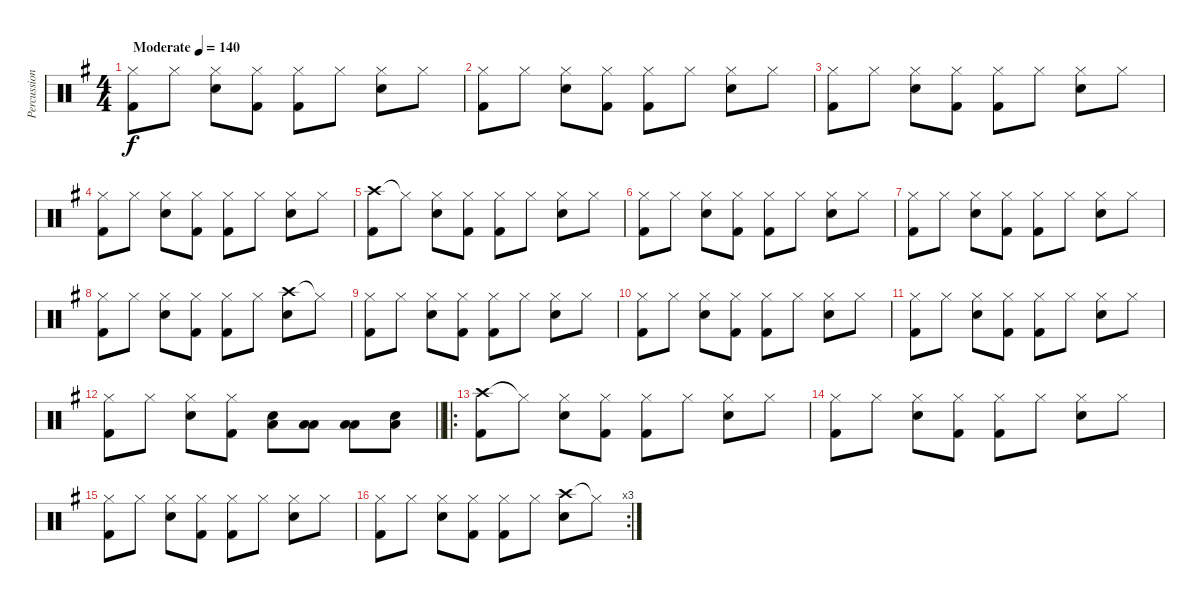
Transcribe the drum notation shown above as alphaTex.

\track ("Percussion" "Percussion") {instrument percussion}
\staff {score}
\articulation defaults
\ts (4 4)
\tempo (140 "Moderate")
\clef neutral
\ks g
("Hi-Hat (closed)" "Kick (hit) 2").8{dy f} "Hi-Hat (closed)".8 ("Hi-Hat (closed)" "Snare (hit) 2").8 ("Hi-Hat (closed)" "Kick (hit) 2").8 ("Hi-Hat (closed)" "Kick (hit) 2").8 "Hi-Hat (closed)".8 ("Hi-Hat (closed)" "Snare (hit) 2").8 "Hi-Hat (closed)".8 |
("Hi-Hat (closed)" "Kick (hit) 2").8 "Hi-Hat (closed)".8 ("Hi-Hat (closed)" "Snare (hit) 2").8 ("Hi-Hat (closed)" "Kick (hit) 2").8 ("Hi-Hat (closed)" "Kick (hit) 2").8 "Hi-Hat (closed)".8 ("Hi-Hat (closed)" "Snare (hit) 2").8 "Hi-Hat (closed)".8 |
("Hi-Hat (closed)" "Kick (hit) 2").8 "Hi-Hat (closed)".8 ("Hi-Hat (closed)" "Snare (hit) 2").8 ("Hi-Hat (closed)" "Kick (hit) 2").8 ("Hi-Hat (closed)" "Kick (hit) 2").8 "Hi-Hat (closed)".8 ("Hi-Hat (closed)" "Snare (hit) 2").8 "Hi-Hat (closed)".8 |
("Hi-Hat (closed)" "Kick (hit) 2").8 "Hi-Hat (closed)".8 ("Hi-Hat (closed)" "Snare (hit) 2").8 ("Hi-Hat (closed)" "Kick (hit) 2").8 ("Hi-Hat (closed)" "Kick (hit) 2").8 "Hi-Hat (closed)".8 ("Hi-Hat (closed)" "Snare (hit) 2").8 "Hi-Hat (closed)".8 |
("Crash high (hit)" "Kick (hit) 2").8 "Hi-Hat (closed)"{t}.8 ("Hi-Hat (closed)" "Snare (hit) 2").8 ("Hi-Hat (closed)" "Kick (hit) 2").8 ("Hi-Hat (closed)" "Kick (hit) 2").8 "Hi-Hat (closed)".8 ("Hi-Hat (closed)" "Snare (hit) 2").8 "Hi-Hat (closed)".8 |
("Hi-Hat (closed)" "Kick (hit) 2").8 "Hi-Hat (closed)".8 ("Hi-Hat (closed)" "Snare (hit) 2").8 ("Hi-Hat (closed)" "Kick (hit) 2").8 ("Hi-Hat (closed)" "Kick (hit) 2").8 "Hi-Hat (closed)".8 ("Hi-Hat (closed)" "Snare (hit) 2").8 "Hi-Hat (closed)".8 |
("Hi-Hat (closed)" "Kick (hit) 2").8 "Hi-Hat (closed)".8 ("Hi-Hat (closed)" "Snare (hit) 2").8 ("Hi-Hat (closed)" "Kick (hit) 2").8 ("Hi-Hat (closed)" "Kick (hit) 2").8 "Hi-Hat (closed)".8 ("Hi-Hat (closed)" "Snare (hit) 2").8 "Hi-Hat (closed)".8 |
("Hi-Hat (closed)" "Kick (hit) 2").8 "Hi-Hat (closed)".8 ("Hi-Hat (closed)" "Snare (hit) 2").8 ("Hi-Hat (closed)" "Kick (hit) 2").8 ("Hi-Hat (closed)" "Kick (hit) 2").8 "Hi-Hat (closed)".8 ("Crash high (hit)" "Snare (hit) 2").8 "Hi-Hat (closed)"{t}.8 |
("Hi-Hat (closed)" "Kick (hit) 2").8 "Hi-Hat (closed)".8 ("Hi-Hat (closed)" "Snare (hit) 2").8 ("Hi-Hat (closed)" "Kick (hit) 2").8 ("Hi-Hat (closed)" "Kick (hit) 2").8 "Hi-Hat (closed)".8 ("Hi-Hat (closed)" "Snare (hit) 2").8 "Hi-Hat (closed)".8 |
("Hi-Hat (closed)" "Kick (hit) 2").8 "Hi-Hat (closed)".8 ("Hi-Hat (closed)" "Snare (hit) 2").8 ("Hi-Hat (closed)" "Kick (hit) 2").8 ("Hi-Hat (closed)" "Kick (hit) 2").8 "Hi-Hat (closed)".8 ("Hi-Hat (closed)" "Snare (hit) 2").8 "Hi-Hat (closed)".8 |
("Hi-Hat (closed)" "Kick (hit) 2").8 "Hi-Hat (closed)".8 ("Hi-Hat (closed)" "Snare (hit) 2").8 ("Hi-Hat (closed)" "Kick (hit) 2").8 ("Hi-Hat (closed)" "Kick (hit) 2").8 "Hi-Hat (closed)".8 ("Hi-Hat (closed)" "Snare (hit) 2").8 "Hi-Hat (closed)".8 |
\barLineRight lightlight
("Hi-Hat (closed)" "Kick (hit) 2").8 "Hi-Hat (closed)".8 ("Hi-Hat (closed)" "Snare (hit) 2").8 ("Hi-Hat (closed)" "Kick (hit) 2").8 ("Low Floor Tom (hit)" "Snare (hit) 2").8 ("Low Floor Tom (hit)" "Low Floor Tom (hit)").8 ("Low Floor Tom (hit)" "Low Floor Tom (hit)").8 ("Low Floor Tom (hit)" "Snare (hit) 2").8 |
\ro
("Crash high (hit)" "Kick (hit) 2").8 "Hi-Hat (closed)"{t}.8 ("Hi-Hat (closed)" "Snare (hit) 2").8 ("Hi-Hat (closed)" "Kick (hit) 2").8 ("Hi-Hat (closed)" "Kick (hit) 2").8 "Hi-Hat (closed)".8 ("Hi-Hat (closed)" "Snare (hit) 2").8 "Hi-Hat (closed)".8 |
("Hi-Hat (closed)" "Kick (hit) 2").8 "Hi-Hat (closed)".8 ("Hi-Hat (closed)" "Snare (hit) 2").8 ("Hi-Hat (closed)" "Kick (hit) 2").8 ("Hi-Hat (closed)" "Kick (hit) 2").8 "Hi-Hat (closed)".8 ("Hi-Hat (closed)" "Snare (hit) 2").8 "Hi-Hat (closed)".8 |
("Hi-Hat (closed)" "Kick (hit) 2").8 "Hi-Hat (closed)".8 ("Hi-Hat (closed)" "Snare (hit) 2").8 ("Hi-Hat (closed)" "Kick (hit) 2").8 ("Hi-Hat (closed)" "Kick (hit) 2").8 "Hi-Hat (closed)".8 ("Hi-Hat (closed)" "Snare (hit) 2").8 "Hi-Hat (closed)".8 |
\rc 3
("Hi-Hat (closed)" "Kick (hit) 2").8 "Hi-Hat (closed)".8 ("Hi-Hat (closed)" "Snare (hit) 2").8 ("Hi-Hat (closed)" "Kick (hit) 2").8 ("Hi-Hat (closed)" "Kick (hit) 2").8 "Hi-Hat (closed)".8 ("Crash high (hit)" "Snare (hit) 2").8 "Hi-Hat (closed)"{t}.8
